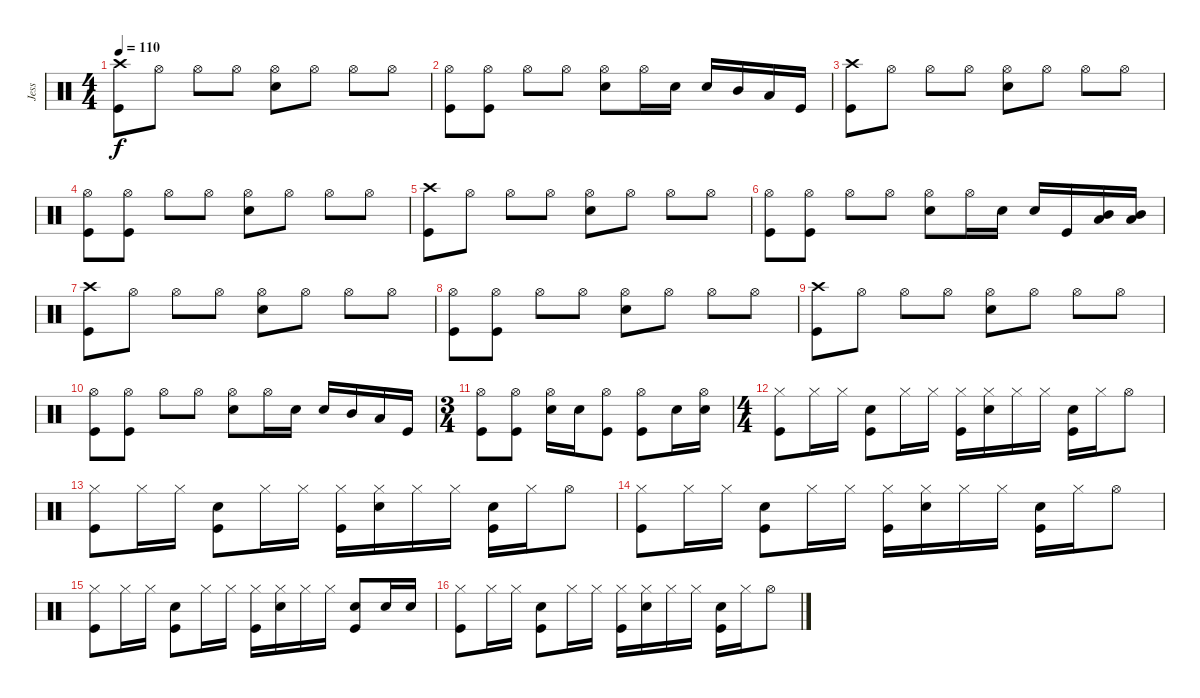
\track ("Jess" "Jess") {instrument percussion}
\staff {score}
\articulation defaults
\ts (4 4)
\tempo 110
\clef neutral
\ks c
("Crash high (hit)" "Kick (hit)").8{dy f} "Hi-Hat (open)".8 "Hi-Hat (open)".8 "Hi-Hat (open)".8 ("Hi-Hat (open)" "Electric Snare (hit)").8 "Hi-Hat (open)".8 "Hi-Hat (open)".8 "Hi-Hat (open)".8 |
("Hi-Hat (open)" "Kick (hit)").8 ("Hi-Hat (open)" "Kick (hit)").8 "Hi-Hat (open)".8 "Hi-Hat (open)".8 ("Hi-Hat (open)" "Electric Snare (hit)").8 "Hi-Hat (open)".16 "Electric Snare (hit)".16 "Electric Snare (hit)".16 "Mid Tom (hit)".16 "Low Tom (hit)".16 "Kick (hit)".16 |
("Crash high (hit)" "Kick (hit)").8 "Hi-Hat (open)".8 "Hi-Hat (open)".8 "Hi-Hat (open)".8 ("Hi-Hat (open)" "Electric Snare (hit)").8 "Hi-Hat (open)".8 "Hi-Hat (open)".8 "Hi-Hat (open)".8 |
("Hi-Hat (open)" "Kick (hit)").8 ("Hi-Hat (open)" "Kick (hit)").8 "Hi-Hat (open)".8 "Hi-Hat (open)".8 ("Hi-Hat (open)" "Electric Snare (hit)").8 "Hi-Hat (open)".8 "Hi-Hat (open)".8 "Hi-Hat (open)".8 |
("Crash high (hit)" "Kick (hit)").8 "Hi-Hat (open)".8 "Hi-Hat (open)".8 "Hi-Hat (open)".8 ("Hi-Hat (open)" "Electric Snare (hit)").8 "Hi-Hat (open)".8 "Hi-Hat (open)".8 "Hi-Hat (open)".8 |
("Hi-Hat (open)" "Kick (hit)").8 ("Hi-Hat (open)" "Kick (hit)").8 "Hi-Hat (open)".8 "Hi-Hat (open)".8 ("Hi-Hat (open)" "Electric Snare (hit)").8 "Hi-Hat (open)".16 "Electric Snare (hit)".16 "Electric Snare (hit)".16 "Kick (hit)".16 ("Mid Tom (hit)" "Low Tom (hit)").16 ("Mid Tom (hit)" "Low Tom (hit)").16 |
("Crash high (hit)" "Kick (hit)").8 "Hi-Hat (open)".8 "Hi-Hat (open)".8 "Hi-Hat (open)".8 ("Hi-Hat (open)" "Electric Snare (hit)").8 "Hi-Hat (open)".8 "Hi-Hat (open)".8 "Hi-Hat (open)".8 |
("Hi-Hat (open)" "Kick (hit)").8 ("Hi-Hat (open)" "Kick (hit)").8 "Hi-Hat (open)".8 "Hi-Hat (open)".8 ("Hi-Hat (open)" "Electric Snare (hit)").8 "Hi-Hat (open)".8 "Hi-Hat (open)".8 "Hi-Hat (open)".8 |
("Crash high (hit)" "Kick (hit)").8 "Hi-Hat (open)".8 "Hi-Hat (open)".8 "Hi-Hat (open)".8 ("Hi-Hat (open)" "Electric Snare (hit)").8 "Hi-Hat (open)".8 "Hi-Hat (open)".8 "Hi-Hat (open)".8 |
("Hi-Hat (open)" "Kick (hit)").8 ("Hi-Hat (open)" "Kick (hit)").8 "Hi-Hat (open)".8 "Hi-Hat (open)".8 ("Hi-Hat (open)" "Electric Snare (hit)").8 "Hi-Hat (open)".16 "Electric Snare (hit)".16 "Electric Snare (hit)".16 "Mid Tom (hit)".16 "Low Tom (hit)".16 "Kick (hit)".16 |
\ts (3 4)
("Hi-Hat (open)" "Kick (hit)").8 ("Hi-Hat (open)" "Kick (hit)").8 ("Hi-Hat (open)" "Electric Snare (hit)").16 "Electric Snare (hit)".16 ("Hi-Hat (open)" "Kick (hit)").8 ("Hi-Hat (open)" "Kick (hit)").8 "Electric Snare (hit)".16 ("Hi-Hat (open)" "Electric Snare (hit)").16 |
\ts (4 4)
("Hi-Hat (closed)" "Kick (hit)").8 "Hi-Hat (closed)".16 "Hi-Hat (closed)".16 ("Electric Snare (hit)" "Kick (hit)").8 "Hi-Hat (closed)".16 "Hi-Hat (closed)".16 ("Hi-Hat (closed)" "Kick (hit)").16 ("Hi-Hat (closed)" "Electric Snare (hit)").16 "Hi-Hat (closed)".16 "Hi-Hat (closed)".16 ("Electric Snare (hit)" "Kick (hit)").16 "Hi-Hat (closed)".16 "Hi-Hat (open)".8 |
("Hi-Hat (closed)" "Kick (hit)").8 "Hi-Hat (closed)".16 "Hi-Hat (closed)".16 ("Electric Snare (hit)" "Kick (hit)").8 "Hi-Hat (closed)".16 "Hi-Hat (closed)".16 ("Hi-Hat (closed)" "Kick (hit)").16 ("Hi-Hat (closed)" "Electric Snare (hit)").16 "Hi-Hat (closed)".16 "Hi-Hat (closed)".16 ("Electric Snare (hit)" "Kick (hit)").16 "Hi-Hat (closed)".16 "Hi-Hat (open)".8 |
("Hi-Hat (closed)" "Kick (hit)").8 "Hi-Hat (closed)".16 "Hi-Hat (closed)".16 ("Electric Snare (hit)" "Kick (hit)").8 "Hi-Hat (closed)".16 "Hi-Hat (closed)".16 ("Hi-Hat (closed)" "Kick (hit)").16 ("Hi-Hat (closed)" "Electric Snare (hit)").16 "Hi-Hat (closed)".16 "Hi-Hat (closed)".16 ("Electric Snare (hit)" "Kick (hit)").16 "Hi-Hat (closed)".16 "Hi-Hat (open)".8 |
("Hi-Hat (closed)" "Kick (hit)").8 "Hi-Hat (closed)".16 "Hi-Hat (closed)".16 ("Electric Snare (hit)" "Kick (hit)").8 "Hi-Hat (closed)".16 "Hi-Hat (closed)".16 ("Hi-Hat (closed)" "Kick (hit)").16 ("Hi-Hat (closed)" "Electric Snare (hit)").16 "Hi-Hat (closed)".16 "Hi-Hat (closed)".16 ("Electric Snare (hit)" "Kick (hit)").8 "Electric Snare (hit)".16 "Electric Snare (hit)".16 |
("Hi-Hat (closed)" "Kick (hit)").8 "Hi-Hat (closed)".16 "Hi-Hat (closed)".16 ("Electric Snare (hit)" "Kick (hit)").8 "Hi-Hat (closed)".16 "Hi-Hat (closed)".16 ("Hi-Hat (closed)" "Kick (hit)").16 ("Hi-Hat (closed)" "Electric Snare (hit)").16 "Hi-Hat (closed)".16 "Hi-Hat (closed)".16 ("Electric Snare (hit)" "Kick (hit)").16 "Hi-Hat (closed)".16 "Hi-Hat (open)".8
